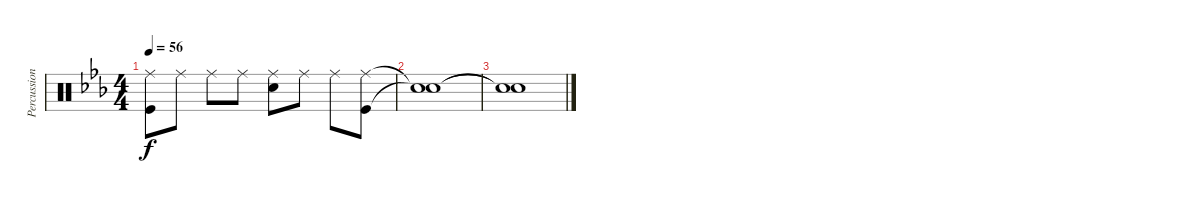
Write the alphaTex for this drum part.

\track ("Percussion" "Percussion") {instrument percussion}
\staff {score}
\articulation defaults
\ts (4 4)
\tempo 56
\clef neutral
\ks eb
("Ride (middle)" "Kick (hit)").8{dy f} "Ride (middle)".8 "Ride (middle)".8 "Ride (middle)".8 ("Snare (hit) 2" "Ride (middle)").8 "Ride (middle)".8 "Ride (middle)".8 ("Kick (hit)" "Ride (middle)").8 |
("Snare (hit)"{t} "Snare (hit)"{t}).1 |
("Snare (hit)"{t} "Snare (hit)"{t}).1
